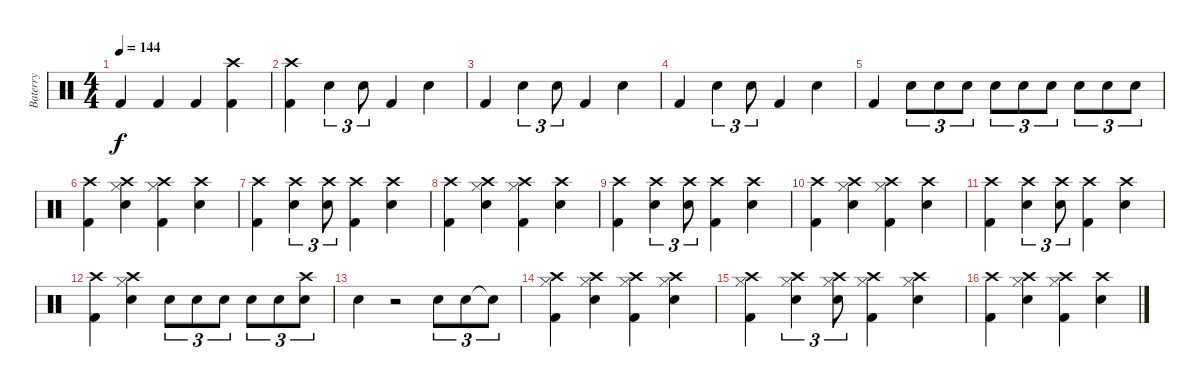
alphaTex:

\track ("Baterry" "Baterry") {instrument percussion}
\staff {score}
\articulation defaults
\ts (4 4)
\tempo 144
\clef neutral
\ks c "Kick (hit) 2".4{dy f} "Kick (hit) 2".4 "Kick (hit) 2".4
("Crash high (hit)" "Kick (hit) 2").4 |
("Crash high (hit)" "Kick (hit) 2").4 "Electric Snare (hit)".4{tu (3 2)} "Electric Snare (hit)".8{tu (3 2)} "Kick (hit) 2".4 "Electric Snare (hit)".4 |
"Kick (hit) 2".4 "Electric Snare (hit)".4{tu (3 2)} "Electric Snare (hit)".8{tu (3 2)} "Kick (hit) 2".4 "Electric Snare (hit)".4 |
"Kick (hit) 2".4 "Electric Snare (hit)".4{tu (3 2)} "Electric Snare (hit)".8{tu (3 2)} "Kick (hit) 2".4 "Electric Snare (hit)".4 |
"Kick (hit) 2".4 "Electric Snare (hit)".8{tu (3 2)} "Electric Snare (hit)".8{tu (3 2)} "Electric Snare (hit)".8{tu (3 2)} "Electric Snare (hit)".8{tu (3 2)} "Electric Snare (hit)".8{tu (3 2)} "Electric Snare (hit)".8{tu (3 2)} "Electric Snare (hit)".8{tu (3 2)} "Electric Snare (hit)".8{tu (3 2)} "Electric Snare (hit)".8{tu (3 2)} |
("Crash high (hit)" "Kick (hit) 2").4 ("Hi-Hat (closed)" "Crash high (hit)" "Electric Snare (hit)").4 ("Hi-Hat (closed)" "Crash high (hit)" "Kick (hit) 2").4 ("Crash high (hit)" "Electric Snare (hit)").4 |
("Kick (hit) 2" "Crash high (hit)").4 ("Electric Snare (hit)" "Crash high (hit)").4{tu (3 2)} ("Electric Snare (hit)" "Crash high (hit)").8{tu (3 2)} ("Kick (hit) 2" "Crash high (hit)").4 ("Electric Snare (hit)" "Crash high (hit)").4 |
("Crash high (hit)" "Kick (hit) 2").4 ("Hi-Hat (closed)" "Crash high (hit)" "Electric Snare (hit)").4 ("Hi-Hat (closed)" "Crash high (hit)" "Kick (hit) 2").4 ("Crash high (hit)" "Electric Snare (hit)").4 |
("Kick (hit) 2" "Crash high (hit)").4 ("Electric Snare (hit)" "Crash high (hit)").4{tu (3 2)} ("Electric Snare (hit)" "Crash high (hit)").8{tu (3 2)} ("Kick (hit) 2" "Crash high (hit)").4 ("Electric Snare (hit)" "Crash high (hit)").4 |
("Crash high (hit)" "Kick (hit) 2").4 ("Hi-Hat (closed)" "Crash high (hit)" "Electric Snare (hit)").4 ("Hi-Hat (closed)" "Crash high (hit)" "Kick (hit) 2").4 ("Crash high (hit)" "Electric Snare (hit)").4 |
("Kick (hit) 2" "Crash high (hit)").4 ("Electric Snare (hit)" "Crash high (hit)").4{tu (3 2)} ("Electric Snare (hit)" "Crash high (hit)").8{tu (3 2)} ("Kick (hit) 2" "Crash high (hit)").4 ("Electric Snare (hit)" "Crash high (hit)").4 |
("Crash high (hit)" "Kick (hit) 2").4 ("Hi-Hat (closed)" "Crash high (hit)" "Electric Snare (hit)").4 "Electric Snare (hit)".8{tu (3 2)} "Electric Snare (hit)".8{tu (3 2)} "Electric Snare (hit)".8{tu (3 2)} "Electric Snare (hit)".8{tu (3 2)} "Electric Snare (hit)".8{tu (3 2)} ("Crash high (hit)" "Electric Snare (hit)").8{tu (3 2)} |
"Electric Snare (hit)".4 r.2 "Electric Snare (hit)".8{tu (3 2)} "Electric Snare (hit)".8{tu (3 2)} "Snare (hit)"{t}.8{tu (3 2)} |
("Hi-Hat (closed)" "Crash high (hit)" "Kick (hit) 2").4 ("Hi-Hat (closed)" "Crash high (hit)" "Electric Snare (hit)").4 ("Hi-Hat (closed)" "Crash high (hit)" "Kick (hit) 2").4 ("Hi-Hat (closed)" "Crash high (hit)" "Electric Snare (hit)").4 |
("Hi-Hat (closed)" "Kick (hit) 2" "Crash high (hit)").4 ("Hi-Hat (closed)" "Electric Snare (hit)" "Crash high (hit)").4{tu (3 2)} ("Hi-Hat (closed)" "Electric Snare (hit)" "Crash high (hit)").8{tu (3 2)} ("Hi-Hat (closed)" "Kick (hit) 2" "Crash high (hit)").4 ("Hi-Hat (closed)" "Electric Snare (hit)" "Crash high (hit)").4 |
("Crash high (hit)" "Kick (hit) 2").4 ("Hi-Hat (closed)" "Crash high (hit)" "Electric Snare (hit)").4 ("Hi-Hat (closed)" "Crash high (hit)" "Kick (hit) 2").4 ("Crash high (hit)" "Electric Snare (hit)").4
